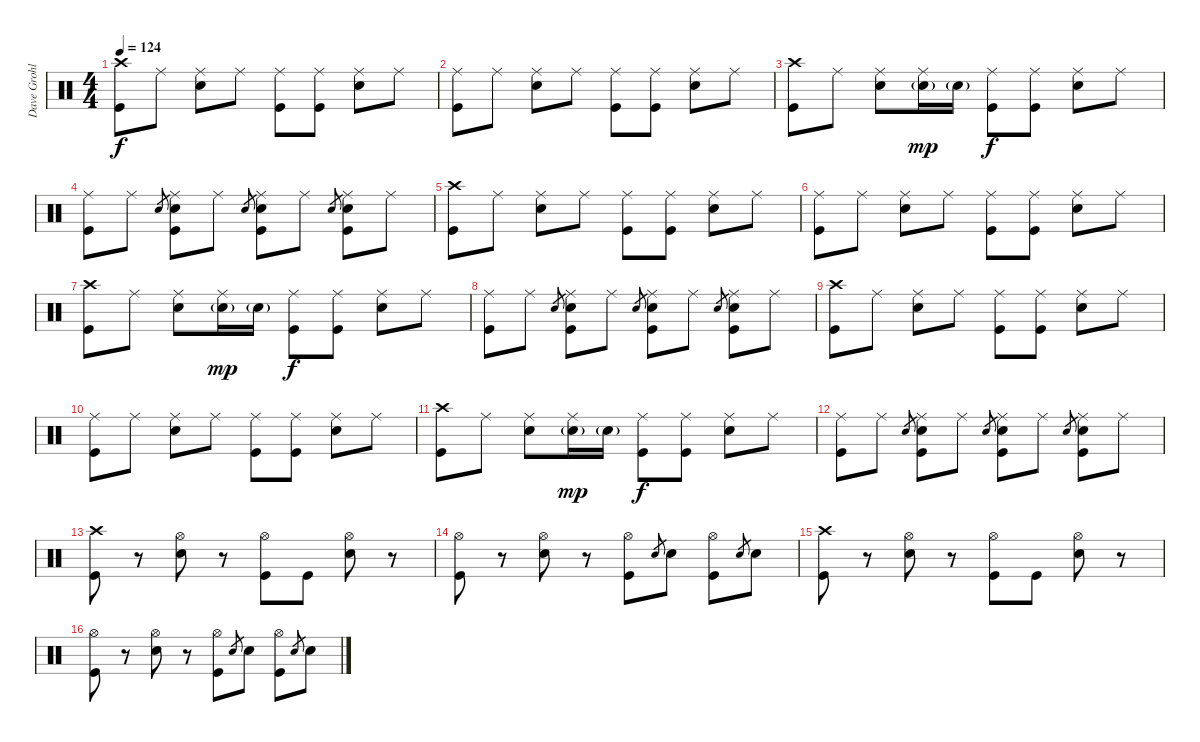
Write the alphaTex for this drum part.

\track ("Dave Grohl" "Dave Grohl") {instrument percussion}
\staff {score}
\articulation defaults
\ts (4 4)
\tempo 124
\clef neutral
\ks c
("Crash high (hit)" "Kick (hit)").8{dy f} "Ride (middle)".8 ("Ride (middle)" "Snare (hit) 2").8 "Ride (middle)".8 ("Ride (middle)" "Kick (hit)").8 ("Ride (middle)" "Kick (hit)").8 ("Ride (middle)" "Snare (hit) 2").8 "Ride (middle)".8 |
("Ride (middle)" "Kick (hit)").8 "Ride (middle)".8 ("Ride (middle)" "Snare (hit) 2").8 "Ride (middle)".8 ("Ride (middle)" "Kick (hit)").8 ("Ride (middle)" "Kick (hit)").8 ("Ride (middle)" "Snare (hit) 2").8 "Ride (middle)".8 |
("Crash high (hit)" "Kick (hit)").8 "Ride (middle)".8 ("Ride (middle)" "Snare (hit) 2").8 ("Ride (middle)" "Snare (hit) 2"{g}).16{dy mp} "Snare (hit) 2"{g}.16 ("Ride (middle)" "Kick (hit)").8{dy f} ("Ride (middle)" "Kick (hit)").8 ("Ride (middle)" "Snare (hit) 2").8 "Ride (middle)".8 |
("Ride (middle)" "Kick (hit)").8 "Ride (middle)".8 "Snare (hit) 2".8{gr} ("Ride (middle)" "Snare (hit) 2" "Kick (hit)").8 "Ride (middle)".8 "Snare (hit) 2".8{gr} ("Ride (middle)" "Snare (hit) 2" "Kick (hit)").8 "Ride (middle)".8 "Snare (hit) 2".8{gr} ("Ride (middle)" "Snare (hit) 2" "Kick (hit)").8 "Ride (middle)".8 |
("Crash high (hit)" "Kick (hit)").8 "Ride (middle)".8 ("Ride (middle)" "Snare (hit) 2").8 "Ride (middle)".8 ("Ride (middle)" "Kick (hit)").8 ("Ride (middle)" "Kick (hit)").8 ("Ride (middle)" "Snare (hit) 2").8 "Ride (middle)".8 |
("Ride (middle)" "Kick (hit)").8 "Ride (middle)".8 ("Ride (middle)" "Snare (hit) 2").8 "Ride (middle)".8 ("Ride (middle)" "Kick (hit)").8 ("Ride (middle)" "Kick (hit)").8 ("Ride (middle)" "Snare (hit) 2").8 "Ride (middle)".8 |
("Crash high (hit)" "Kick (hit)").8 "Ride (middle)".8 ("Ride (middle)" "Snare (hit) 2").8 ("Ride (middle)" "Snare (hit) 2"{g}).16{dy mp} "Snare (hit) 2"{g}.16 ("Ride (middle)" "Kick (hit)").8{dy f} ("Ride (middle)" "Kick (hit)").8 ("Ride (middle)" "Snare (hit) 2").8 "Ride (middle)".8 |
("Ride (middle)" "Kick (hit)").8 "Ride (middle)".8 "Snare (hit) 2".8{gr} ("Ride (middle)" "Snare (hit) 2" "Kick (hit)").8 "Ride (middle)".8 "Snare (hit) 2".8{gr} ("Ride (middle)" "Snare (hit) 2" "Kick (hit)").8 "Ride (middle)".8 "Snare (hit) 2".8{gr} ("Ride (middle)" "Snare (hit) 2" "Kick (hit)").8 "Ride (middle)".8 |
("Crash high (hit)" "Kick (hit)").8 "Ride (middle)".8 ("Ride (middle)" "Snare (hit) 2").8 "Ride (middle)".8 ("Ride (middle)" "Kick (hit)").8 ("Ride (middle)" "Kick (hit)").8 ("Ride (middle)" "Snare (hit) 2").8 "Ride (middle)".8 |
("Ride (middle)" "Kick (hit)").8 "Ride (middle)".8 ("Ride (middle)" "Snare (hit) 2").8 "Ride (middle)".8 ("Ride (middle)" "Kick (hit)").8 ("Ride (middle)" "Kick (hit)").8 ("Ride (middle)" "Snare (hit) 2").8 "Ride (middle)".8 |
("Crash high (hit)" "Kick (hit)").8 "Ride (middle)".8 ("Ride (middle)" "Snare (hit) 2").8 ("Ride (middle)" "Snare (hit) 2"{g}).16{dy mp} "Snare (hit) 2"{g}.16 ("Ride (middle)" "Kick (hit)").8{dy f} ("Ride (middle)" "Kick (hit)").8 ("Ride (middle)" "Snare (hit) 2").8 "Ride (middle)".8 |
("Ride (middle)" "Kick (hit)").8 "Ride (middle)".8 "Snare (hit) 2".8{gr} ("Ride (middle)" "Snare (hit) 2" "Kick (hit)").8 "Ride (middle)".8 "Snare (hit) 2".8{gr} ("Ride (middle)" "Snare (hit) 2" "Kick (hit)").8 "Ride (middle)".8 "Snare (hit) 2".8{gr} ("Ride (middle)" "Snare (hit) 2" "Kick (hit)").8 "Ride (middle)".8 |
("Crash high (hit)" "Kick (hit)").8 r.8 ("Hi-Hat (open)" "Snare (hit) 2").8 r.8 ("Hi-Hat (open)" "Kick (hit)").8 "Kick (hit)".8 ("Hi-Hat (open)" "Snare (hit) 2").8 r.8 |
("Hi-Hat (open)" "Kick (hit)").8 r.8 ("Hi-Hat (open)" "Snare (hit) 2").8 r.8 ("Hi-Hat (open)" "Kick (hit)").8 "Snare (hit) 2".8{gr} "Snare (hit) 2".8 ("Hi-Hat (open)" "Kick (hit)").8 "Snare (hit) 2".8{gr} "Snare (hit) 2".8 |
("Crash high (hit)" "Kick (hit)").8 r.8 ("Hi-Hat (open)" "Snare (hit) 2").8 r.8 ("Hi-Hat (open)" "Kick (hit)").8 "Kick (hit)".8 ("Hi-Hat (open)" "Snare (hit) 2").8 r.8 |
("Hi-Hat (open)" "Kick (hit)").8 r.8 ("Hi-Hat (open)" "Snare (hit) 2").8 r.8 ("Hi-Hat (open)" "Kick (hit)").8 "Snare (hit) 2".8{gr} "Snare (hit) 2".8 ("Hi-Hat (open)" "Kick (hit)").8 "Snare (hit) 2".8{gr} "Snare (hit) 2".8
